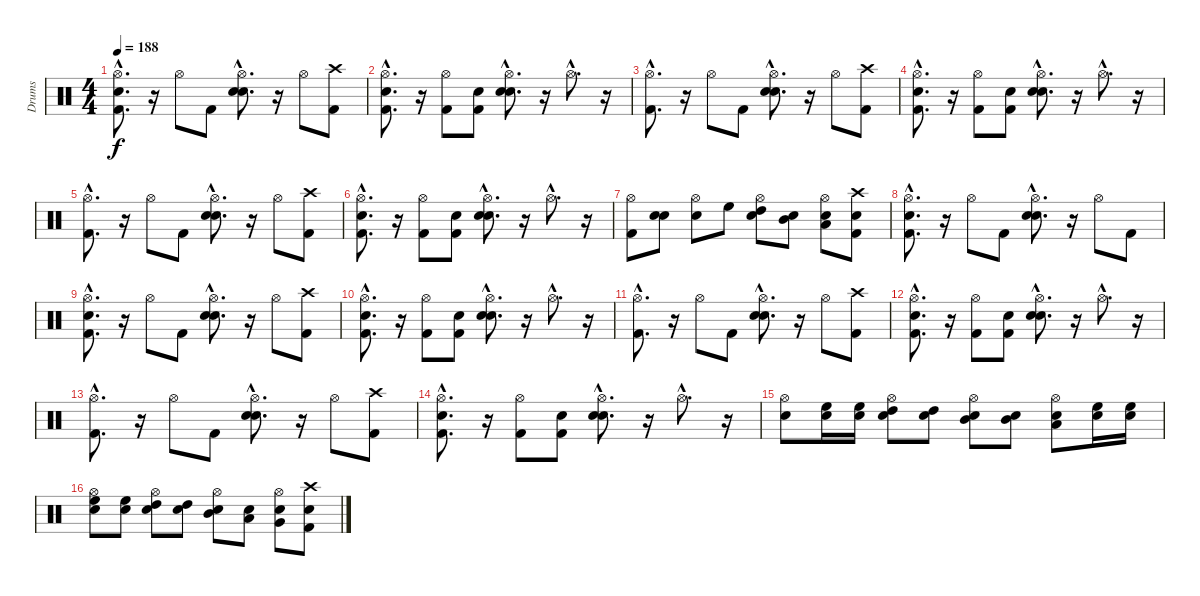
\track ("Drums" "Drums") {instrument percussion}
\staff {score}
\articulation defaults
\ts (4 4)
\tempo 188
\clef neutral
\ks c
("Snare (hit)"{hac} "Kick (hit) 2"{hac} "Hi-Hat (open)"{hac}).8{d dy f} r.16 "Hi-Hat (open)".8 "Kick (hit) 2".8 ("Snare (hit)"{hac} "Snare (hit) 2"{hac} "Hi-Hat (open)"{hac}).8{d} r.16 "Hi-Hat (open)".8 ("Kick (hit) 2" "Crash high (hit)").8 |
("Snare (hit)"{hac} "Kick (hit) 2"{hac} "Hi-Hat (open)"{hac}).8{d} r.16 ("Kick (hit) 2" "Hi-Hat (open)").8 ("Snare (hit)" "Kick (hit) 2").8 ("Snare (hit)"{hac} "Snare (hit) 2"{hac} "Hi-Hat (open)"{hac}).8{d} r.16 "Hi-Hat (open)"{hac}.8{d} r.16 |
("Kick (hit) 2"{hac} "Hi-Hat (open)"{hac}).8{d} r.16 "Hi-Hat (open)".8 "Kick (hit) 2".8 ("Snare (hit)"{hac} "Snare (hit) 2"{hac} "Hi-Hat (open)"{hac}).8{d} r.16 "Hi-Hat (open)".8 ("Kick (hit) 2" "Crash high (hit)").8 |
("Snare (hit)"{hac} "Kick (hit) 2"{hac} "Hi-Hat (open)"{hac}).8{d} r.16 ("Kick (hit) 2" "Hi-Hat (open)").8 ("Snare (hit)" "Kick (hit) 2").8 ("Snare (hit)"{hac} "Snare (hit) 2"{hac} "Hi-Hat (open)"{hac}).8{d} r.16 "Hi-Hat (open)"{hac}.8{d} r.16 |
("Kick (hit) 2"{hac} "Hi-Hat (open)"{hac}).8{d} r.16 "Hi-Hat (open)".8 "Kick (hit) 2".8 ("Snare (hit)"{hac} "Snare (hit) 2"{hac} "Hi-Hat (open)"{hac}).8{d} r.16 "Hi-Hat (open)".8 ("Kick (hit) 2" "Crash high (hit)").8 |
("Snare (hit)"{hac} "Kick (hit) 2"{hac} "Hi-Hat (open)"{hac}).8{d} r.16 ("Kick (hit) 2" "Hi-Hat (open)").8 ("Snare (hit)" "Kick (hit) 2").8 ("Snare (hit)"{hac} "Snare (hit) 2"{hac} "Hi-Hat (open)"{hac}).8{d} r.16 "Hi-Hat (open)"{hac}.8{d} r.16 |
("Kick (hit) 2" "Hi-Hat (open)").8 ("Snare (hit)" "Snare (hit) 2").8 ("Snare (hit)" "Hi-Hat (open)").8 "High Floor Tom (hit)".8 ("Snare (hit)" "Hi-Hat (open)" "High Tom (hit)").8 ("Snare (hit)" "Mid Tom (hit)").8 ("Snare (hit)" "Low Tom (hit)" "Hi-Hat (open)").8 ("Snare (hit)" "Kick (hit) 2" "Crash high (hit)").8 |
("Snare (hit)"{hac} "Kick (hit) 2"{hac} "Hi-Hat (open)"{hac}).8{d} r.16 "Hi-Hat (open)".8 "Kick (hit) 2".8 ("Snare (hit)"{hac} "Snare (hit) 2"{hac} "Hi-Hat (open)"{hac}).8{d} r.16 "Hi-Hat (open)".8 "Kick (hit) 2".8 |
("Snare (hit)"{hac} "Kick (hit) 2"{hac} "Hi-Hat (open)"{hac}).8{d} r.16 "Hi-Hat (open)".8 "Kick (hit) 2".8 ("Snare (hit)"{hac} "Snare (hit) 2"{hac} "Hi-Hat (open)"{hac}).8{d} r.16 "Hi-Hat (open)".8 ("Kick (hit) 2" "Crash high (hit)").8 |
("Snare (hit)"{hac} "Kick (hit) 2"{hac} "Hi-Hat (open)"{hac}).8{d} r.16 ("Kick (hit) 2" "Hi-Hat (open)").8 ("Snare (hit)" "Kick (hit) 2").8 ("Snare (hit)"{hac} "Snare (hit) 2"{hac} "Hi-Hat (open)"{hac}).8{d} r.16 "Hi-Hat (open)"{hac}.8{d} r.16 |
("Kick (hit) 2"{hac} "Hi-Hat (open)"{hac}).8{d} r.16 "Hi-Hat (open)".8 "Kick (hit) 2".8 ("Snare (hit)"{hac} "Snare (hit) 2"{hac} "Hi-Hat (open)"{hac}).8{d} r.16 "Hi-Hat (open)".8 ("Kick (hit) 2" "Crash high (hit)").8 |
("Snare (hit)"{hac} "Kick (hit) 2"{hac} "Hi-Hat (open)"{hac}).8{d} r.16 ("Kick (hit) 2" "Hi-Hat (open)").8 ("Snare (hit)" "Kick (hit) 2").8 ("Snare (hit)"{hac} "Snare (hit) 2"{hac} "Hi-Hat (open)"{hac}).8{d} r.16 "Hi-Hat (open)"{hac}.8{d} r.16 |
("Kick (hit) 2"{hac} "Hi-Hat (open)"{hac}).8{d} r.16 "Hi-Hat (open)".8 "Kick (hit) 2".8 ("Snare (hit)"{hac} "Snare (hit) 2"{hac} "Hi-Hat (open)"{hac}).8{d} r.16 "Hi-Hat (open)".8 ("Kick (hit) 2" "Crash high (hit)").8 |
("Snare (hit)"{hac} "Kick (hit) 2"{hac} "Hi-Hat (open)"{hac}).8{d} r.16 ("Kick (hit) 2" "Hi-Hat (open)").8 ("Snare (hit)" "Kick (hit) 2").8 ("Snare (hit)"{hac} "Snare (hit) 2"{hac} "Hi-Hat (open)"{hac}).8{d} r.16 "Hi-Hat (open)"{hac}.8{d} r.16 |
("Snare (hit) 2" "Hi-Hat (open)").8 ("Snare (hit)" "High Floor Tom (hit)").16 ("Snare (hit)" "High Floor Tom (hit)").16 ("Snare (hit)" "Hi-Hat (open)" "High Tom (hit)").8 ("Snare (hit)" "High Tom (hit)").8 ("Snare (hit)" "Hi-Hat (open)" "Mid Tom (hit)").8 ("Snare (hit)" "Mid Tom (hit)").8 ("Snare (hit)" "Low Tom (hit)" "Hi-Hat (open)").8 ("Snare (hit)" "High Floor Tom (hit)").16 ("Snare (hit)" "High Floor Tom (hit)").16 |
("Snare (hit)" "Hi-Hat (open)" "High Floor Tom (hit)").8 ("Snare (hit)" "High Floor Tom (hit)").8 ("Snare (hit)" "Hi-Hat (open)" "High Tom (hit)").8 ("Snare (hit)" "High Tom (hit)").8 ("Snare (hit)" "Hi-Hat (open)" "Mid Tom (hit)").8 ("Snare (hit)" "Low Tom (hit)").8 ("Snare (hit)" "Very Low Tom (hit)" "Hi-Hat (open)").8 ("Snare (hit)" "Kick (hit) 2" "Crash high (hit)").8
